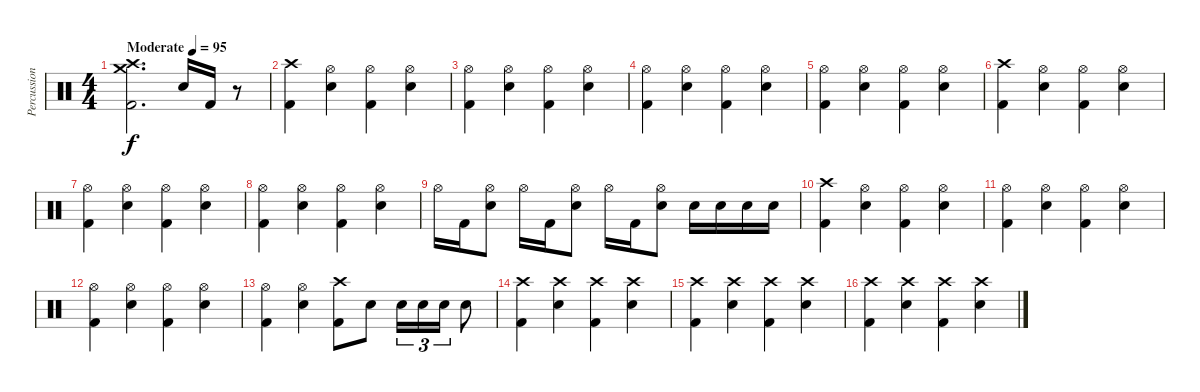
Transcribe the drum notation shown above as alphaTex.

\track ("Percussion" "Percussion") {instrument percussion}
\staff {score}
\articulation defaults
\ts (4 4)
\tempo (95 "Moderate")
\clef neutral
\ks c
("Crash high (hit)" "Crash medium (hit)" "Kick (hit) 2").2{d dy f} "Electric Snare (hit)".16 "Kick (hit) 2".16 r.8 |
("Crash high (hit)" "Kick (hit) 2").4 ("Hi-Hat (open)" "Electric Snare (hit)").4 ("Hi-Hat (open)" "Kick (hit) 2").4 ("Hi-Hat (open)" "Electric Snare (hit)").4 |
("Hi-Hat (open)" "Kick (hit) 2").4 ("Hi-Hat (open)" "Electric Snare (hit)").4 ("Hi-Hat (open)" "Kick (hit) 2").4 ("Hi-Hat (open)" "Electric Snare (hit)").4 |
("Hi-Hat (open)" "Kick (hit) 2").4 ("Hi-Hat (open)" "Electric Snare (hit)").4 ("Hi-Hat (open)" "Kick (hit) 2").4 ("Hi-Hat (open)" "Electric Snare (hit)").4 |
("Hi-Hat (open)" "Kick (hit) 2").4 ("Hi-Hat (open)" "Electric Snare (hit)").4 ("Hi-Hat (open)" "Kick (hit) 2").4 ("Hi-Hat (open)" "Electric Snare (hit)").4 |
("Crash high (hit)" "Kick (hit) 2").4 ("Hi-Hat (open)" "Electric Snare (hit)").4 ("Hi-Hat (open)" "Kick (hit) 2").4 ("Hi-Hat (open)" "Electric Snare (hit)").4 |
("Hi-Hat (open)" "Kick (hit) 2").4 ("Hi-Hat (open)" "Electric Snare (hit)").4 ("Hi-Hat (open)" "Kick (hit) 2").4 ("Hi-Hat (open)" "Electric Snare (hit)").4 |
("Hi-Hat (open)" "Kick (hit) 2").4 ("Hi-Hat (open)" "Electric Snare (hit)").4 ("Hi-Hat (open)" "Kick (hit) 2").4 ("Hi-Hat (open)" "Electric Snare (hit)").4 |
"Hi-Hat (open)".16 "Kick (hit) 2".16 ("Hi-Hat (open)" "Electric Snare (hit)").8 "Hi-Hat (open)".16 "Kick (hit) 2".16 ("Hi-Hat (open)" "Electric Snare (hit)").8 "Hi-Hat (open)".16 "Kick (hit) 2".16 ("Hi-Hat (open)" "Electric Snare (hit)").8 "Electric Snare (hit)".16 "Electric Snare (hit)".16 "Electric Snare (hit)".16 "Electric Snare (hit)".16 |
("Crash high (hit)" "Kick (hit) 2").4 ("Hi-Hat (open)" "Electric Snare (hit)").4 ("Hi-Hat (open)" "Kick (hit) 2").4 ("Hi-Hat (open)" "Electric Snare (hit)").4 |
("Hi-Hat (open)" "Kick (hit) 2").4 ("Hi-Hat (open)" "Electric Snare (hit)").4 ("Hi-Hat (open)" "Kick (hit) 2").4 ("Hi-Hat (open)" "Electric Snare (hit)").4 |
("Hi-Hat (open)" "Kick (hit) 2").4 ("Hi-Hat (open)" "Electric Snare (hit)").4 ("Hi-Hat (open)" "Kick (hit) 2").4 ("Hi-Hat (open)" "Electric Snare (hit)").4 |
("Hi-Hat (open)" "Kick (hit) 2").4 ("Hi-Hat (open)" "Electric Snare (hit)").4 ("Crash high (hit)" "Kick (hit) 2").8 "Electric Snare (hit)".8 "Electric Snare (hit)".16{tu (3 2)} "Electric Snare (hit)".16{tu (3 2)} "Electric Snare (hit)".16{tu (3 2)} "Electric Snare (hit)".8 |
("Crash high (hit)" "Kick (hit) 2").4 ("Crash high (hit)" "Electric Snare (hit)").4 ("Crash high (hit)" "Kick (hit) 2").4 ("Crash high (hit)" "Electric Snare (hit)").4 |
("Crash high (hit)" "Kick (hit) 2").4 ("Crash high (hit)" "Electric Snare (hit)").4 ("Crash high (hit)" "Kick (hit) 2").4 ("Crash high (hit)" "Electric Snare (hit)").4 |
("Crash high (hit)" "Kick (hit) 2").4 ("Crash high (hit)" "Electric Snare (hit)").4 ("Crash high (hit)" "Kick (hit) 2").4 ("Crash high (hit)" "Electric Snare (hit)").4
